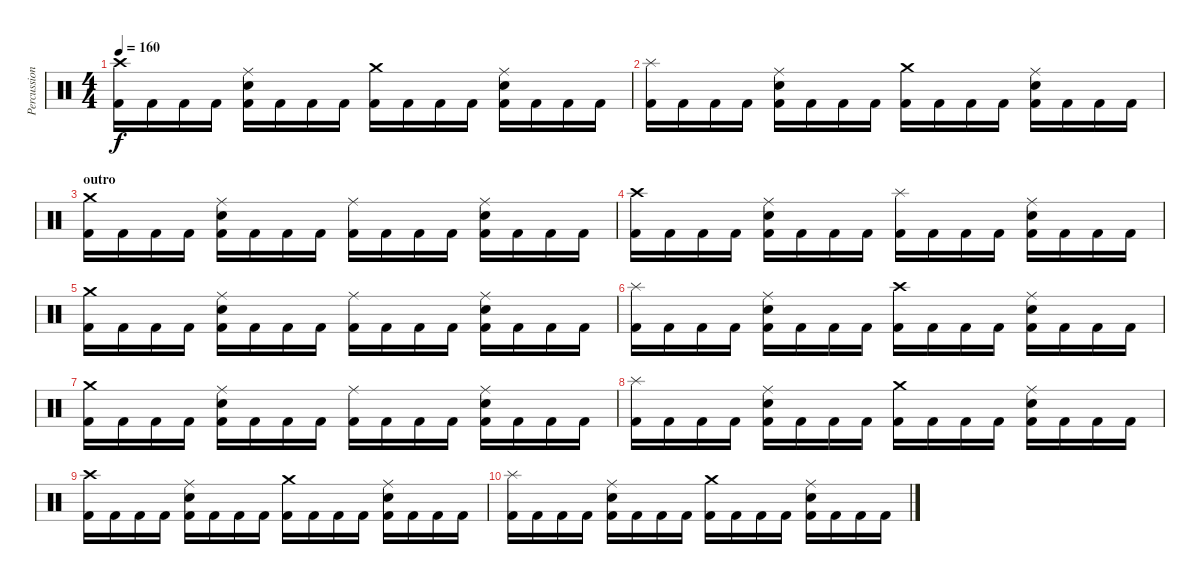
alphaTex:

\track ("Percussions" "Percussion") {instrument percussion}
\staff {score}
\articulation defaults
\ts (4 4)
\tempo 160
\clef neutral
\ks c
("Crash high (hit)" "Kick (hit) 2").16{dy f} "Kick (hit) 2".16 "Kick (hit) 2".16 "Kick (hit) 2".16 ("Electric Snare (hit)" "Ride (middle)" "Kick (hit) 2").16 "Kick (hit) 2".16 "Kick (hit) 2".16 "Kick (hit) 2".16 ("Crash medium (hit)" "Kick (hit) 2").16 "Kick (hit) 2".16 "Kick (hit) 2".16 "Kick (hit) 2".16 ("Electric Snare (hit)" "Ride (middle)" "Kick (hit) 2").16 "Kick (hit) 2".16 "Kick (hit) 2".16 "Kick (hit) 2".16 |
("Splash (hit)" "Kick (hit) 2").16 "Kick (hit) 2".16 "Kick (hit) 2".16 "Kick (hit) 2".16 ("Electric Snare (hit)" "Ride (middle)" "Kick (hit) 2").16 "Kick (hit) 2".16 "Kick (hit) 2".16 "Kick (hit) 2".16 ("Crash medium (hit)" "Kick (hit) 2").16 "Kick (hit) 2".16 "Kick (hit) 2".16 "Kick (hit) 2".16 ("Electric Snare (hit)" "Ride (middle)" "Kick (hit) 2").16 "Kick (hit) 2".16 "Kick (hit) 2".16 "Kick (hit) 2".16 |
\section ("" "outro")
("Crash medium (hit)" "Kick (hit) 2").16{volume 11} "Kick (hit) 2".16 "Kick (hit) 2".16 "Kick (hit) 2".16 ("Electric Snare (hit)" "Ride (middle)" "Kick (hit) 2").16 "Kick (hit) 2".16 "Kick (hit) 2".16 "Kick (hit) 2".16 ("Ride (middle)" "Kick (hit) 2").16 "Kick (hit) 2".16 "Kick (hit) 2".16 "Kick (hit) 2".16 ("Electric Snare (hit)" "Ride (middle)" "Kick (hit) 2").16 "Kick (hit) 2".16 "Kick (hit) 2".16 "Kick (hit) 2".16 |
("Crash high (hit)" "Kick (hit) 2").16 "Kick (hit) 2".16 "Kick (hit) 2".16 "Kick (hit) 2".16 ("Electric Snare (hit)" "Ride (middle)" "Kick (hit) 2").16 "Kick (hit) 2".16 "Kick (hit) 2".16 "Kick (hit) 2".16 ("Splash (hit)" "Kick (hit) 2").16 "Kick (hit) 2".16 "Kick (hit) 2".16 "Kick (hit) 2".16 ("Electric Snare (hit)" "Ride (middle)" "Kick (hit) 2").16 "Kick (hit) 2".16 "Kick (hit) 2".16 "Kick (hit) 2".16 |
("Crash medium (hit)" "Kick (hit) 2").16{volume 7} "Kick (hit) 2".16 "Kick (hit) 2".16 "Kick (hit) 2".16 ("Electric Snare (hit)" "Ride (middle)" "Kick (hit) 2").16 "Kick (hit) 2".16 "Kick (hit) 2".16 "Kick (hit) 2".16 ("Ride (middle)" "Kick (hit) 2").16 "Kick (hit) 2".16 "Kick (hit) 2".16 "Kick (hit) 2".16 ("Electric Snare (hit)" "Ride (middle)" "Kick (hit) 2").16 "Kick (hit) 2".16 "Kick (hit) 2".16 "Kick (hit) 2".16 |
("Splash (hit)" "Kick (hit) 2").16 "Kick (hit) 2".16 "Kick (hit) 2".16 "Kick (hit) 2".16 ("Electric Snare (hit)" "Ride (middle)" "Kick (hit) 2").16 "Kick (hit) 2".16 "Kick (hit) 2".16 "Kick (hit) 2".16 ("Crash high (hit)" "Kick (hit) 2").16 "Kick (hit) 2".16 "Kick (hit) 2".16 "Kick (hit) 2".16 ("Electric Snare (hit)" "Ride (middle)" "Kick (hit) 2").16 "Kick (hit) 2".16 "Kick (hit) 2".16 "Kick (hit) 2".16 |
("Crash medium (hit)" "Kick (hit) 2").16{volume 4} "Kick (hit) 2".16 "Kick (hit) 2".16 "Kick (hit) 2".16 ("Electric Snare (hit)" "Ride (middle)" "Kick (hit) 2").16 "Kick (hit) 2".16 "Kick (hit) 2".16 "Kick (hit) 2".16 ("Ride (middle)" "Kick (hit) 2").16 "Kick (hit) 2".16 "Kick (hit) 2".16 "Kick (hit) 2".16 ("Electric Snare (hit)" "Ride (middle)" "Kick (hit) 2").16 "Kick (hit) 2".16 "Kick (hit) 2".16 "Kick (hit) 2".16 |
("Splash (hit)" "Kick (hit) 2").16 "Kick (hit) 2".16 "Kick (hit) 2".16 "Kick (hit) 2".16 ("Electric Snare (hit)" "Ride (middle)" "Kick (hit) 2").16 "Kick (hit) 2".16 "Kick (hit) 2".16 "Kick (hit) 2".16 ("Crash medium (hit)" "Kick (hit) 2").16 "Kick (hit) 2".16 "Kick (hit) 2".16 "Kick (hit) 2".16 ("Electric Snare (hit)" "Ride (middle)" "Kick (hit) 2").16 "Kick (hit) 2".16 "Kick (hit) 2".16 "Kick (hit) 2".16 |
("Crash high (hit)" "Kick (hit) 2").16{volume 2} "Kick (hit) 2".16 "Kick (hit) 2".16 "Kick (hit) 2".16 ("Electric Snare (hit)" "Ride (middle)" "Kick (hit) 2").16 "Kick (hit) 2".16 "Kick (hit) 2".16 "Kick (hit) 2".16 ("Crash medium (hit)" "Kick (hit) 2").16 "Kick (hit) 2".16 "Kick (hit) 2".16 "Kick (hit) 2".16 ("Electric Snare (hit)" "Ride (middle)" "Kick (hit) 2").16 "Kick (hit) 2".16 "Kick (hit) 2".16 "Kick (hit) 2".16 |
("Splash (hit)" "Kick (hit) 2").16 "Kick (hit) 2".16 "Kick (hit) 2".16 "Kick (hit) 2".16 ("Electric Snare (hit)" "Ride (middle)" "Kick (hit) 2").16 "Kick (hit) 2".16 "Kick (hit) 2".16 "Kick (hit) 2".16 ("Crash medium (hit)" "Kick (hit) 2").16 "Kick (hit) 2".16 "Kick (hit) 2".16 "Kick (hit) 2".16 ("Electric Snare (hit)" "Ride (middle)" "Kick (hit) 2").16 "Kick (hit) 2".16 "Kick (hit) 2".16 "Kick (hit) 2".16
